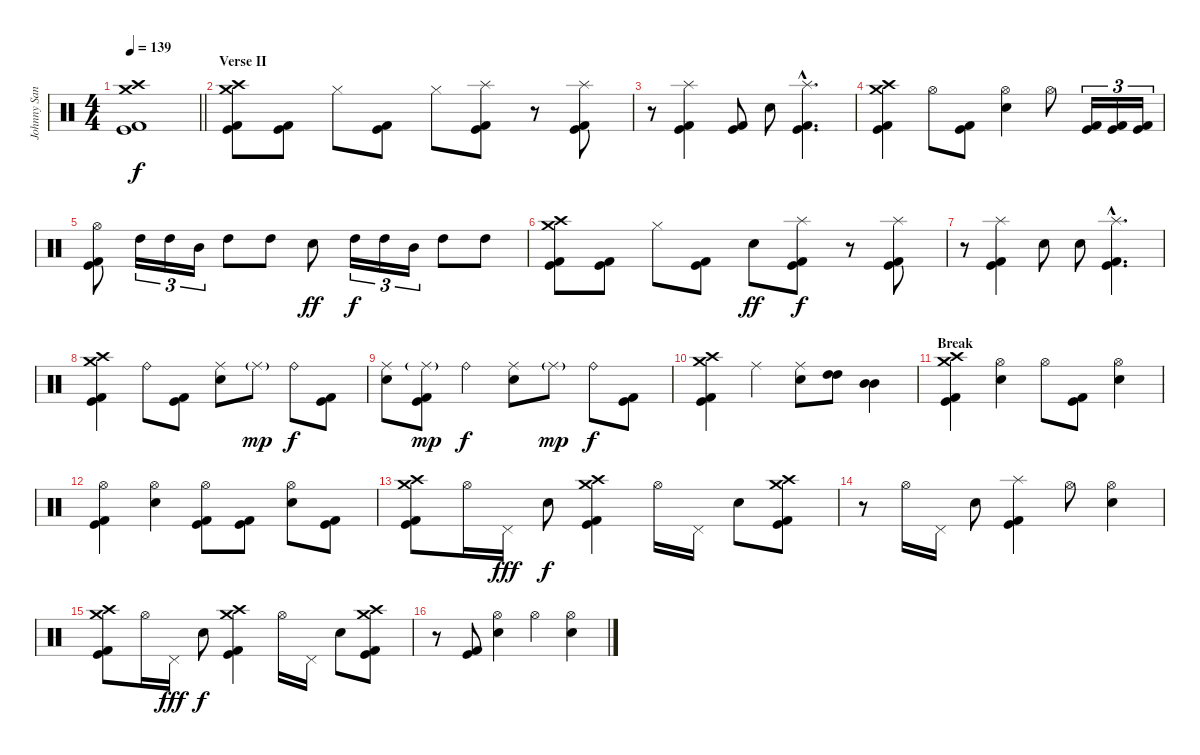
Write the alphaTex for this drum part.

\track ("Johnny Sandin" "Johnny San") {instrument percussion}
\staff {score}
\articulation defaults
\ts (4 4)
\tempo 139
\clef neutral
\barLineRight lightlight
\ks c
("Crash medium (hit)" "Crash high (hit)" "Kick (hit) 2" "Kick (hit)").1{dy f} |
\section ("" "Verse II")
("Crash medium (hit)" "Crash high (hit)" "Kick (hit) 2" "Kick (hit)").8 ("Kick (hit) 2" "Kick (hit)").8 "Hi-Hat (closed)".8 ("Kick (hit) 2" "Kick (hit)").8 "Hi-Hat (closed)".8 ("Splash (hit)" "Kick (hit) 2" "Kick (hit)").8 r.8 ("Splash (hit)" "Kick (hit) 2" "Kick (hit)").8 |
r.8 ("Splash (hit)" "Kick (hit) 2" "Kick (hit)").4 ("Kick (hit) 2" "Kick (hit)").8 "Snare (hit) 2".8 ("Splash (hit)"{hac} "Kick (hit) 2"{hac} "Kick (hit)"{hac}).4{d} |
("Crash medium (hit)" "Crash high (hit)" "Kick (hit) 2" "Kick (hit)").4 "Hi-Hat (open)".8 ("Kick (hit) 2" "Kick (hit)").8 ("Hi-Hat (open)" "Snare (hit) 2").4 "Hi-Hat (open)".8 ("Kick (hit) 2" "Kick (hit)").16{tu (3 2)} ("Kick (hit) 2" "Kick (hit)").16{tu (3 2)} ("Kick (hit) 2" "Kick (hit)").16{tu (3 2)} |
("Hi-Hat (open)" "Kick (hit) 2" "Kick (hit)").8 "High Tom (hit)".16{tu (3 2)} "High Tom (hit)".16{tu (3 2)} "Mid Tom (hit)".16{tu (3 2)} "High Tom (hit)".8 "High Tom (hit)".8 "Snare (hit) 2".8{dy ff} "High Tom (hit)".16{tu (3 2) dy f} "High Tom (hit)".16{tu (3 2)} "Mid Tom (hit)".16{tu (3 2)} "High Tom (hit)".8 "High Tom (hit)".8 |
("Crash medium (hit)" "Crash high (hit)" "Kick (hit) 2" "Kick (hit)").8 ("Kick (hit) 2" "Kick (hit)").8 "Hi-Hat (closed)".8 ("Kick (hit) 2" "Kick (hit)").8 "Snare (hit) 2".8{dy ff} ("Splash (hit)" "Kick (hit) 2" "Kick (hit)").8{dy f} r.8 ("Splash (hit)" "Kick (hit) 2" "Kick (hit)").8 |
r.8 ("Splash (hit)" "Kick (hit) 2" "Kick (hit)").4 "Snare (hit) 2".8 "Snare (hit) 2".8 ("Splash (hit)"{hac} "Kick (hit) 2"{hac} "Kick (hit)"{hac}).4{d} |
("Crash medium (hit)" "Crash high (hit)" "Kick (hit) 2" "Kick (hit)").4 "Ride (bell)".8 ("Kick (hit) 2" "Kick (hit)").8 ("Ride (middle)" "Snare (hit) 2").8 "Ride (middle)"{g}.8{dy mp} "Ride (bell)".8{dy f} ("Kick (hit) 2" "Kick (hit)").8 |
("Ride (middle)" "Snare (hit) 2").8 ("Ride (middle)"{g} "Kick (hit) 2" "Kick (hit)").8{dy mp} "Ride (bell)".4{dy f} ("Ride (middle)" "Snare (hit) 2").8 "Ride (middle)"{g}.8{dy mp} "Ride (bell)".8{dy f} ("Kick (hit)" "Kick (hit) 2").8 |
("Crash medium (hit)" "Crash high (hit)" "Kick (hit)" "Kick (hit) 2").4 "Ride (middle)".4 ("Ride (middle)" "Snare (hit) 2").8 ("High Tom (hit)" "High Tom (hit)").8 ("Mid Tom (hit)" "Mid Tom (hit)").4 |
\section ("" "Break")
("Crash medium (hit)" "Crash high (hit)" "Kick (hit) 2" "Kick (hit)").4 ("Hi-Hat (open)" "Snare (hit) 2").4 "Hi-Hat (open)".8 ("Kick (hit) 2" "Kick (hit)").8 ("Hi-Hat (open)" "Snare (hit) 2").4 |
("Hi-Hat (open)" "Kick (hit) 2" "Kick (hit)").4 ("Hi-Hat (open)" "Snare (hit) 2").4 ("Hi-Hat (open)" "Kick (hit) 2" "Kick (hit)").8 ("Kick (hit) 2" "Kick (hit)").8 ("Hi-Hat (open)" "Snare (hit) 2").8 ("Kick (hit)" "Kick (hit) 2").8 |
("Crash medium (hit)" "Crash high (hit)" "Kick (hit) 2" "Kick (hit)").8 "Hi-Hat (open)".16 "Pedal Hi-Hat (hit)".16{dy fff} "Snare (hit) 2".8{dy f} ("Crash medium (hit)" "Crash high (hit)" "Kick (hit) 2" "Kick (hit)").4 "Hi-Hat (open)".16 "Pedal Hi-Hat (hit)".16 "Snare (hit) 2".8 ("Crash medium (hit)" "Crash high (hit)" "Kick (hit)" "Kick (hit) 2").8 |
r.8 "Hi-Hat (open)".16 "Pedal Hi-Hat (hit)".16 "Snare (hit) 2".8 ("Splash (hit)" "Kick (hit) 2" "Kick (hit)").4 "Hi-Hat (open)".8 ("Hi-Hat (open)" "Snare (hit) 2").4 |
("Crash medium (hit)" "Crash high (hit)" "Kick (hit) 2" "Kick (hit)").8 "Hi-Hat (open)".16 "Pedal Hi-Hat (hit)".16{dy fff} "Snare (hit) 2".8{dy f} ("Crash medium (hit)" "Crash high (hit)" "Kick (hit) 2" "Kick (hit)").4 "Hi-Hat (open)".16 "Pedal Hi-Hat (hit)".16 "Snare (hit) 2".8 ("Crash medium (hit)" "Crash high (hit)" "Kick (hit)" "Kick (hit) 2").8 |
r.8 ("Kick (hit)" "Kick (hit) 2").8 ("Hi-Hat (open)" "Snare (hit) 2").4 "Hi-Hat (open)".4 ("Hi-Hat (open)" "Snare (hit) 2").4
